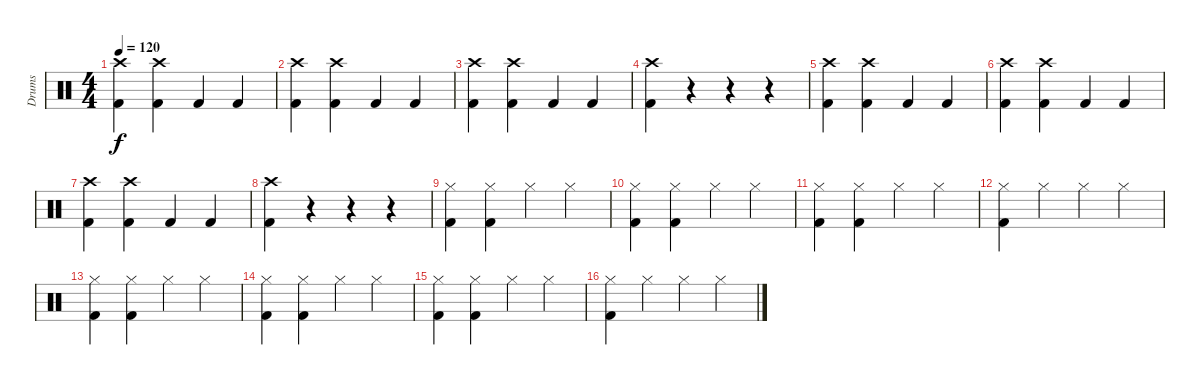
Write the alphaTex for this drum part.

\track ("Drums" "Drums") {instrument percussion}
\staff {score}
\articulation defaults
\ts (4 4)
\tempo 120
\clef neutral
\ks c
("Crash high (hit)" "Kick (hit) 2").4{dy f} ("Crash high (hit)" "Kick (hit) 2").4 "Kick (hit) 2".4 "Kick (hit) 2".4 |
("Crash high (hit)" "Kick (hit) 2").4 ("Crash high (hit)" "Kick (hit) 2").4 "Kick (hit) 2".4 "Kick (hit) 2".4 |
("Crash high (hit)" "Kick (hit) 2").4 ("Crash high (hit)" "Kick (hit) 2").4 "Kick (hit) 2".4 "Kick (hit) 2".4 |
("Crash high (hit)" "Kick (hit) 2").4 r.4 r.4 r.4 |
("Crash high (hit)" "Kick (hit) 2").4 ("Crash high (hit)" "Kick (hit) 2").4 "Kick (hit) 2".4 "Kick (hit) 2".4 |
("Crash high (hit)" "Kick (hit) 2").4 ("Crash high (hit)" "Kick (hit) 2").4 "Kick (hit) 2".4 "Kick (hit) 2".4 |
("Crash high (hit)" "Kick (hit) 2").4 ("Crash high (hit)" "Kick (hit) 2").4 "Kick (hit) 2".4 "Kick (hit) 2".4 |
("Crash high (hit)" "Kick (hit) 2").4 r.4 r.4 r.4 |
("Hi-Hat (closed)" "Kick (hit) 2").4 ("Hi-Hat (closed)" "Kick (hit) 2").4 "Hi-Hat (closed)".4 "Hi-Hat (closed)".4 |
("Hi-Hat (closed)" "Kick (hit) 2").4 ("Hi-Hat (closed)" "Kick (hit) 2").4 "Hi-Hat (closed)".4 "Hi-Hat (closed)".4 |
("Hi-Hat (closed)" "Kick (hit) 2").4 ("Hi-Hat (closed)" "Kick (hit) 2").4 "Hi-Hat (closed)".4 "Hi-Hat (closed)".4 |
("Hi-Hat (closed)" "Kick (hit) 2").4 "Hi-Hat (closed)".4 "Hi-Hat (closed)".4 "Hi-Hat (closed)".4 |
("Hi-Hat (closed)" "Kick (hit) 2").4 ("Hi-Hat (closed)" "Kick (hit) 2").4 "Hi-Hat (closed)".4 "Hi-Hat (closed)".4 |
("Hi-Hat (closed)" "Kick (hit) 2").4 ("Hi-Hat (closed)" "Kick (hit) 2").4 "Hi-Hat (closed)".4 "Hi-Hat (closed)".4 |
("Hi-Hat (closed)" "Kick (hit) 2").4 ("Hi-Hat (closed)" "Kick (hit) 2").4 "Hi-Hat (closed)".4 "Hi-Hat (closed)".4 |
("Hi-Hat (closed)" "Kick (hit) 2").4 "Hi-Hat (closed)".4 "Hi-Hat (closed)".4 "Hi-Hat (closed)".4
